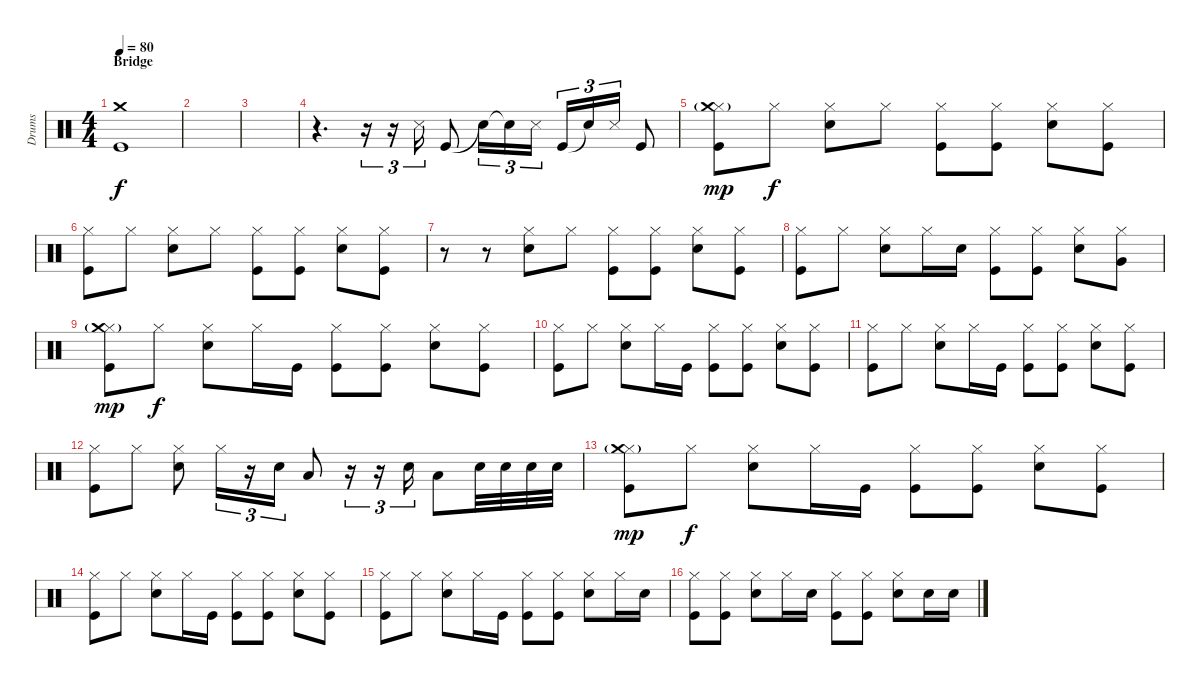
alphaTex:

\track ("Drums" "Drums") {instrument percussion}
\staff {score}
\articulation defaults
\ts (4 4)
\section ("" "Bridge")
\tempo 80
\clef neutral
\ks c
("Crash medium (hit)" "Kick (hit)").1{dy f} |
|
|
r.4{d} r.16{tu (3 2)} r.16{tu (3 2)} "Snare (side stick) 3".16{tu (3 2)} "Kick (hit)".8 "Snare (hit)"{t}.16{tu (3 2)} "Snare (hit)"{t}.16{tu (3 2)} "Snare (side stick) 3".16{tu (3 2)} "Kick (hit)".16{tu (3 2)} "Snare (hit)"{t}.16{tu (3 2)} "Snare (side stick) 3".16{tu (3 2)} "Kick (hit)".8 |
("Hi-Hat (closed)" "Crash medium (hit)"{g} "Kick (hit)").8{dy mp} "Hi-Hat (closed)".8{dy f} ("Hi-Hat (closed)" "Snare (hit) 2").8 "Hi-Hat (closed)".8 ("Hi-Hat (closed)" "Kick (hit)").8 ("Hi-Hat (closed)" "Kick (hit)").8 ("Hi-Hat (closed)" "Snare (hit) 2").8 ("Hi-Hat (closed)" "Kick (hit)").8 |
("Hi-Hat (closed)" "Kick (hit)").8 "Hi-Hat (closed)".8 ("Hi-Hat (closed)" "Snare (hit) 2").8 "Hi-Hat (closed)".8 ("Hi-Hat (closed)" "Kick (hit)").8 ("Hi-Hat (closed)" "Kick (hit)").8 ("Hi-Hat (closed)" "Snare (hit) 2").8 ("Hi-Hat (closed)" "Kick (hit)").8 |
r.8 r.8 ("Hi-Hat (closed)" "Snare (hit) 2").8 "Hi-Hat (closed)".8 ("Hi-Hat (closed)" "Kick (hit)").8 ("Hi-Hat (closed)" "Kick (hit)").8 ("Hi-Hat (closed)" "Snare (hit) 2").8 ("Hi-Hat (closed)" "Kick (hit)").8 |
("Hi-Hat (closed)" "Kick (hit)").8 "Hi-Hat (closed)".8 ("Hi-Hat (closed)" "Snare (hit) 2").8 "Hi-Hat (closed)".16 "Snare (hit) 2".16 ("Hi-Hat (closed)" "Kick (hit)").8 ("Hi-Hat (closed)" "Kick (hit)").8 ("Hi-Hat (closed)" "Snare (hit) 2").8 ("Hi-Hat (closed)" "Very Low Tom (hit)").8 |
("Hi-Hat (closed)" "Crash medium (hit)"{g} "Kick (hit)").8{dy mp} "Hi-Hat (closed)".8{dy f} ("Hi-Hat (closed)" "Snare (hit) 2").8 "Hi-Hat (closed)".16 "Kick (hit)".16 ("Hi-Hat (closed)" "Kick (hit)").8 ("Hi-Hat (closed)" "Kick (hit)").8 ("Hi-Hat (closed)" "Snare (hit) 2").8 ("Hi-Hat (closed)" "Kick (hit)").8 |
("Hi-Hat (closed)" "Kick (hit)").8 "Hi-Hat (closed)".8 ("Hi-Hat (closed)" "Snare (hit) 2").8 "Hi-Hat (closed)".16 "Kick (hit)".16 ("Hi-Hat (closed)" "Kick (hit)").8 ("Hi-Hat (closed)" "Kick (hit)").8 ("Hi-Hat (closed)" "Snare (hit) 2").8 ("Hi-Hat (closed)" "Kick (hit)").8 |
("Hi-Hat (closed)" "Kick (hit)").8 "Hi-Hat (closed)".8 ("Hi-Hat (closed)" "Snare (hit) 2").8 "Hi-Hat (closed)".16 "Kick (hit)".16 ("Hi-Hat (closed)" "Kick (hit)").8 ("Hi-Hat (closed)" "Kick (hit)").8 ("Hi-Hat (closed)" "Snare (hit) 2").8 ("Hi-Hat (closed)" "Kick (hit)").8 |
("Hi-Hat (closed)" "Kick (hit)").8 "Hi-Hat (closed)".8 ("Hi-Hat (closed)" "Snare (hit) 2").8 "Hi-Hat (closed)".16{tu (3 2)} r.16{tu (3 2)} "Snare (hit) 2".16{tu (3 2)} "Low Tom (hit)".8 r.16{tu (3 2)} r.16{tu (3 2)} "Snare (hit) 2".16{tu (3 2)} "Low Tom (hit)".8 "Snare (hit) 2".32 "Snare (hit) 2".32 "Snare (hit) 2".32 "Snare (hit) 2".32 |
("Hi-Hat (closed)" "Crash medium (hit)"{g} "Kick (hit)").8{dy mp} "Hi-Hat (closed)".8{dy f} ("Hi-Hat (closed)" "Snare (hit) 2").8 "Hi-Hat (closed)".16 "Kick (hit)".16 ("Hi-Hat (closed)" "Kick (hit)").8 ("Hi-Hat (closed)" "Kick (hit)").8 ("Hi-Hat (closed)" "Snare (hit) 2").8 ("Hi-Hat (closed)" "Kick (hit)").8 |
("Hi-Hat (closed)" "Kick (hit)").8 "Hi-Hat (closed)".8 ("Hi-Hat (closed)" "Snare (hit) 2").8 "Hi-Hat (closed)".16 "Kick (hit)".16 ("Hi-Hat (closed)" "Kick (hit)").8 ("Hi-Hat (closed)" "Kick (hit)").8 ("Hi-Hat (closed)" "Snare (hit) 2").8 ("Hi-Hat (closed)" "Kick (hit)").8 |
("Hi-Hat (closed)" "Kick (hit)").8 "Hi-Hat (closed)".8 ("Hi-Hat (closed)" "Snare (hit) 2").8 "Hi-Hat (closed)".16 "Kick (hit)".16 ("Hi-Hat (closed)" "Kick (hit)").8 ("Hi-Hat (closed)" "Kick (hit)").8 ("Hi-Hat (closed)" "Snare (hit) 2").8 "Hi-Hat (closed)".16 "Snare (hit) 2".16 |
("Hi-Hat (closed)" "Kick (hit)").8 ("Hi-Hat (closed)" "Kick (hit)").8 ("Hi-Hat (closed)" "Snare (hit) 2").8 "Hi-Hat (closed)".16 "Snare (hit) 2".16 ("Hi-Hat (closed)" "Kick (hit)").8 ("Hi-Hat (closed)" "Kick (hit)").8 ("Hi-Hat (closed)" "Snare (hit) 2").8 "Snare (hit) 2".16 "Snare (hit) 2".16
